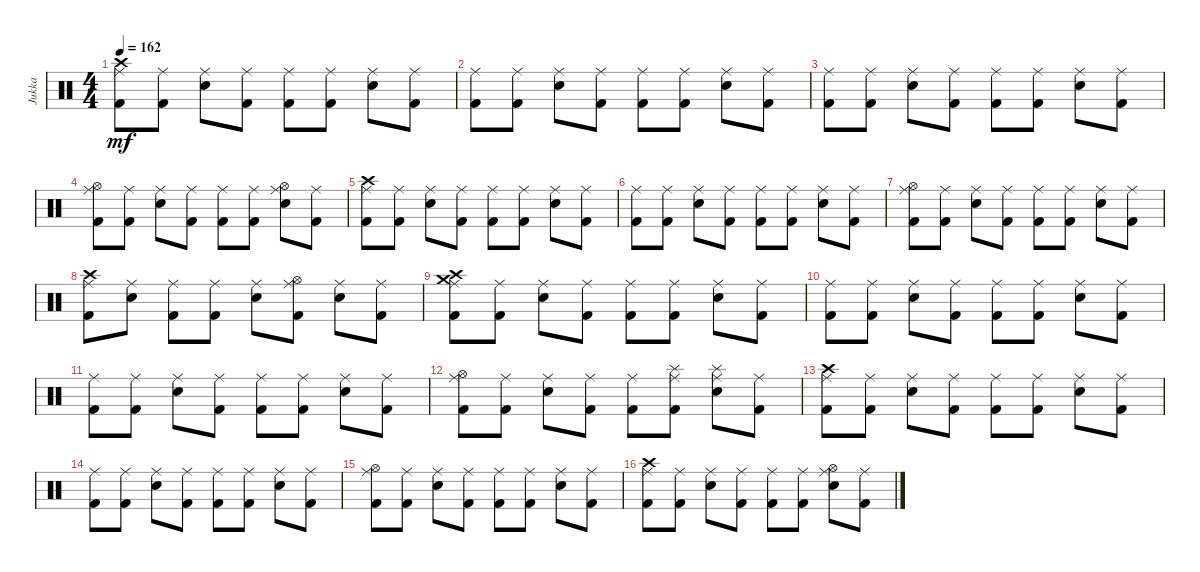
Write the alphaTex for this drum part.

\track ("Jukka" "Jukka") {instrument percussion}
\staff {score}
\articulation defaults
\ts (4 4)
\tempo 162
\clef neutral
\ks c
("Crash high (hit)" "Ride (middle)" "Kick (hit) 2").8{dy mf} ("Ride (middle)" "Kick (hit) 2").8 ("Ride (middle)" "Electric Snare (hit)").8 ("Ride (middle)" "Kick (hit) 2").8 ("Ride (middle)" "Kick (hit) 2").8 ("Ride (middle)" "Kick (hit) 2").8 ("Ride (middle)" "Electric Snare (hit)").8 ("Ride (middle)" "Kick (hit) 2").8 |
("Ride (middle)" "Kick (hit) 2").8 ("Ride (middle)" "Kick (hit) 2").8 ("Ride (middle)" "Electric Snare (hit)").8 ("Ride (middle)" "Kick (hit) 2").8 ("Ride (middle)" "Kick (hit) 2").8 ("Ride (middle)" "Kick (hit) 2").8 ("Ride (middle)" "Electric Snare (hit)").8 ("Ride (middle)" "Kick (hit) 2").8 |
("Ride (middle)" "Kick (hit) 2").8 ("Ride (middle)" "Kick (hit) 2").8 ("Ride (middle)" "Electric Snare (hit)").8 ("Ride (middle)" "Kick (hit) 2").8 ("Ride (middle)" "Kick (hit) 2").8 ("Ride (middle)" "Kick (hit) 2").8 ("Ride (middle)" "Electric Snare (hit)").8 ("Ride (middle)" "Kick (hit) 2").8 |
("Hi-Hat (open)" "Ride (middle)" "Kick (hit) 2").8 ("Ride (middle)" "Kick (hit) 2").8 ("Ride (middle)" "Electric Snare (hit)").8 ("Ride (middle)" "Kick (hit) 2").8 ("Ride (middle)" "Kick (hit) 2").8 ("Ride (middle)" "Kick (hit) 2").8 ("Hi-Hat (open)" "Ride (middle)" "Electric Snare (hit)").8 ("Ride (middle)" "Kick (hit) 2").8 |
("Crash high (hit)" "Ride (middle)" "Kick (hit) 2").8 ("Ride (middle)" "Kick (hit) 2").8 ("Ride (middle)" "Electric Snare (hit)").8 ("Ride (middle)" "Kick (hit) 2").8 ("Ride (middle)" "Kick (hit) 2").8 ("Ride (middle)" "Kick (hit) 2").8 ("Ride (middle)" "Electric Snare (hit)").8 ("Ride (middle)" "Kick (hit) 2").8 |
("Ride (middle)" "Kick (hit) 2").8 ("Ride (middle)" "Kick (hit) 2").8 ("Ride (middle)" "Electric Snare (hit)").8 ("Ride (middle)" "Kick (hit) 2").8 ("Ride (middle)" "Kick (hit) 2").8 ("Ride (middle)" "Kick (hit) 2").8 ("Ride (middle)" "Electric Snare (hit)").8 ("Ride (middle)" "Kick (hit) 2").8 |
("Hi-Hat (open)" "Ride (middle)" "Kick (hit) 2").8 ("Ride (middle)" "Kick (hit) 2").8 ("Ride (middle)" "Electric Snare (hit)").8 ("Ride (middle)" "Kick (hit) 2").8 ("Ride (middle)" "Kick (hit) 2").8 ("Ride (middle)" "Kick (hit) 2").8 ("Ride (middle)" "Electric Snare (hit)").8 ("Ride (middle)" "Kick (hit) 2").8 |
("Crash high (hit)" "Ride (middle)" "Kick (hit) 2").8 ("Ride (middle)" "Electric Snare (hit)").8 ("Ride (middle)" "Kick (hit) 2").8 ("Ride (middle)" "Kick (hit) 2").8 ("Ride (middle)" "Electric Snare (hit)").8 ("Hi-Hat (open)" "Ride (middle)" "Kick (hit) 2").8 ("Ride (middle)" "Electric Snare (hit)").8 ("Ride (middle)" "Kick (hit) 2").8 |
("Crash medium (hit)" "Crash high (hit)" "Ride (middle)" "Kick (hit) 2").8 ("Ride (middle)" "Kick (hit) 2").8 ("Ride (middle)" "Electric Snare (hit)").8 ("Ride (middle)" "Kick (hit) 2").8 ("Ride (middle)" "Kick (hit) 2").8 ("Ride (middle)" "Kick (hit) 2").8 ("Ride (middle)" "Electric Snare (hit)").8 ("Ride (middle)" "Kick (hit) 2").8 |
("Ride (middle)" "Kick (hit) 2").8 ("Ride (middle)" "Kick (hit) 2").8 ("Ride (middle)" "Electric Snare (hit)").8 ("Ride (middle)" "Kick (hit) 2").8 ("Ride (middle)" "Kick (hit) 2").8 ("Ride (middle)" "Kick (hit) 2").8 ("Ride (middle)" "Electric Snare (hit)").8 ("Ride (middle)" "Kick (hit) 2").8 |
("Ride (middle)" "Kick (hit) 2").8 ("Ride (middle)" "Kick (hit) 2").8 ("Ride (middle)" "Electric Snare (hit)").8 ("Ride (middle)" "Kick (hit) 2").8 ("Ride (middle)" "Kick (hit) 2").8 ("Ride (middle)" "Kick (hit) 2").8 ("Ride (middle)" "Electric Snare (hit)").8 ("Ride (middle)" "Kick (hit) 2").8 |
("Hi-Hat (open)" "Ride (middle)" "Kick (hit) 2").8 ("Ride (middle)" "Kick (hit) 2").8 ("Ride (middle)" "Electric Snare (hit)").8 ("Ride (middle)" "Kick (hit) 2").8 ("Ride (middle)" "Kick (hit) 2").8 ("Splash (hit)" "Ride (middle)" "Kick (hit) 2").8 ("Splash (hit)" "Ride (middle)" "Electric Snare (hit)").8 ("Ride (middle)" "Kick (hit) 2").8 |
("Crash high (hit)" "Ride (middle)" "Kick (hit) 2").8 ("Ride (middle)" "Kick (hit) 2").8 ("Ride (middle)" "Electric Snare (hit)").8 ("Ride (middle)" "Kick (hit) 2").8 ("Ride (middle)" "Kick (hit) 2").8 ("Ride (middle)" "Kick (hit) 2").8 ("Ride (middle)" "Electric Snare (hit)").8 ("Ride (middle)" "Kick (hit) 2").8 |
("Ride (middle)" "Kick (hit) 2").8 ("Ride (middle)" "Kick (hit) 2").8 ("Ride (middle)" "Electric Snare (hit)").8 ("Ride (middle)" "Kick (hit) 2").8 ("Ride (middle)" "Kick (hit) 2").8 ("Ride (middle)" "Kick (hit) 2").8 ("Ride (middle)" "Electric Snare (hit)").8 ("Ride (middle)" "Kick (hit) 2").8 |
("Hi-Hat (open)" "Ride (middle)" "Kick (hit) 2").8 ("Ride (middle)" "Kick (hit) 2").8 ("Ride (middle)" "Electric Snare (hit)").8 ("Ride (middle)" "Kick (hit) 2").8 ("Ride (middle)" "Kick (hit) 2").8 ("Ride (middle)" "Kick (hit) 2").8 ("Ride (middle)" "Electric Snare (hit)").8 ("Ride (middle)" "Kick (hit) 2").8 |
("Crash high (hit)" "Ride (middle)" "Kick (hit) 2").8 ("Ride (middle)" "Kick (hit) 2").8 ("Ride (middle)" "Electric Snare (hit)").8 ("Ride (middle)" "Kick (hit) 2").8 ("Ride (middle)" "Kick (hit) 2").8 ("Ride (middle)" "Kick (hit) 2").8 ("Hi-Hat (open)" "Ride (middle)" "Electric Snare (hit)").8 ("Ride (middle)" "Kick (hit) 2").8
